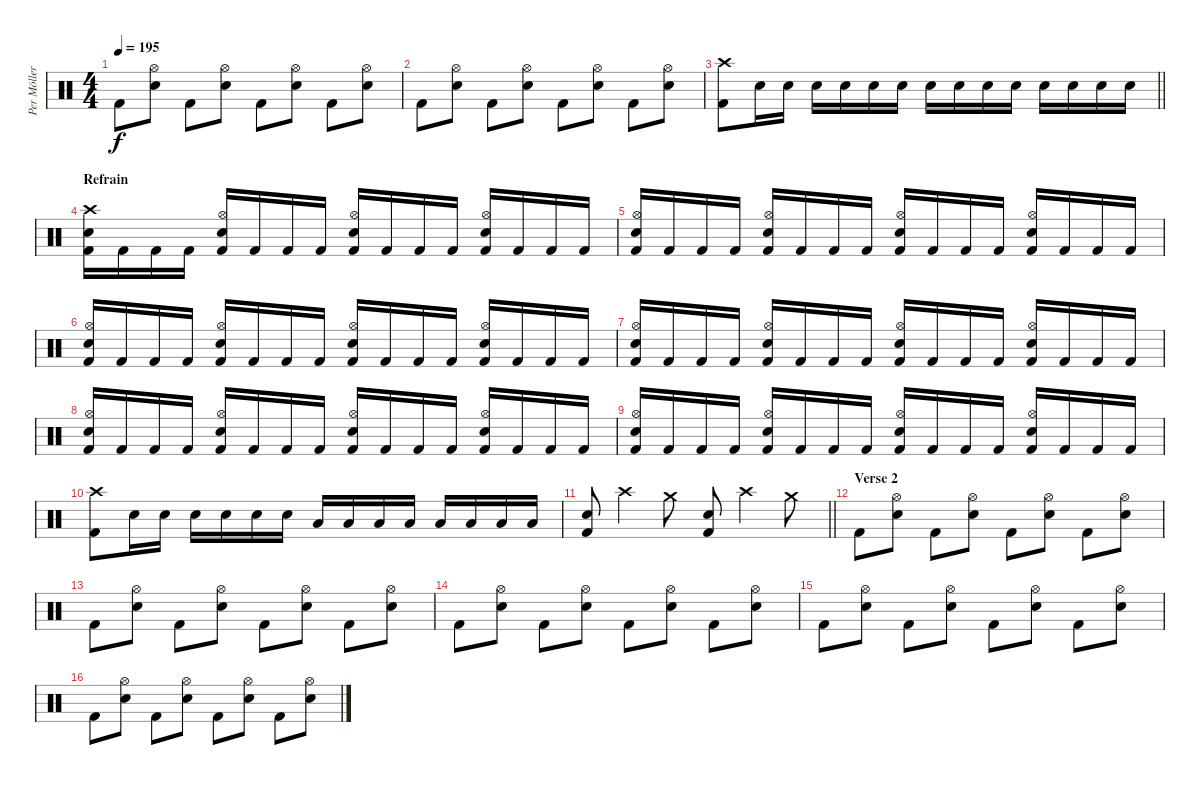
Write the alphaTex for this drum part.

\track ("Per Möller Jensen" "Per Möller") {instrument percussion}
\staff {score}
\articulation defaults
\ts (4 4)
\tempo 195
\clef neutral
\ks c "Kick (hit) 2".8{dy f}
("Hi-Hat (open)" "Snare (hit) 2").8 "Kick (hit) 2".8 ("Hi-Hat (open)" "Snare (hit) 2").8 "Kick (hit) 2".8 ("Hi-Hat (open)" "Snare (hit) 2").8 "Kick (hit) 2".8 ("Hi-Hat (open)" "Snare (hit) 2").8 |
"Kick (hit) 2".8 ("Hi-Hat (open)" "Snare (hit) 2").8 "Kick (hit) 2".8 ("Hi-Hat (open)" "Snare (hit) 2").8 "Kick (hit) 2".8 ("Hi-Hat (open)" "Snare (hit) 2").8 "Kick (hit) 2".8 ("Hi-Hat (open)" "Snare (hit) 2").8 |
\barLineRight lightlight
("Crash high (hit)" "Kick (hit) 2").8 "Snare (hit) 2".16 "Snare (hit) 2".16 "Snare (hit) 2".16 "Snare (hit) 2".16 "Snare (hit) 2".16 "Snare (hit) 2".16 "Snare (hit) 2".16 "Snare (hit) 2".16 "Snare (hit) 2".16 "Snare (hit) 2".16 "Snare (hit) 2".16 "Snare (hit) 2".16 "Snare (hit) 2".16 "Snare (hit) 2".16 |
\section ("" "Refrain")
("Crash high (hit)" "Snare (hit) 2" "Kick (hit) 2").16 "Kick (hit) 2".16 "Kick (hit) 2".16 "Kick (hit) 2".16 ("Hi-Hat (open)" "Snare (hit) 2" "Kick (hit) 2").16 "Kick (hit) 2".16 "Kick (hit) 2".16 "Kick (hit) 2".16 ("Hi-Hat (open)" "Snare (hit) 2" "Kick (hit) 2").16 "Kick (hit) 2".16 "Kick (hit) 2".16 "Kick (hit) 2".16 ("Hi-Hat (open)" "Snare (hit) 2" "Kick (hit) 2").16 "Kick (hit) 2".16 "Kick (hit) 2".16 "Kick (hit) 2".16 |
("Hi-Hat (open)" "Snare (hit) 2" "Kick (hit) 2").16 "Kick (hit) 2".16 "Kick (hit) 2".16 "Kick (hit) 2".16 ("Hi-Hat (open)" "Snare (hit) 2" "Kick (hit) 2").16 "Kick (hit) 2".16 "Kick (hit) 2".16 "Kick (hit) 2".16 ("Hi-Hat (open)" "Snare (hit) 2" "Kick (hit) 2").16 "Kick (hit) 2".16 "Kick (hit) 2".16 "Kick (hit) 2".16 ("Hi-Hat (open)" "Snare (hit) 2" "Kick (hit) 2").16 "Kick (hit) 2".16 "Kick (hit) 2".16 "Kick (hit) 2".16 |
("Hi-Hat (open)" "Snare (hit) 2" "Kick (hit) 2").16 "Kick (hit) 2".16 "Kick (hit) 2".16 "Kick (hit) 2".16 ("Hi-Hat (open)" "Snare (hit) 2" "Kick (hit) 2").16 "Kick (hit) 2".16 "Kick (hit) 2".16 "Kick (hit) 2".16 ("Hi-Hat (open)" "Snare (hit) 2" "Kick (hit) 2").16 "Kick (hit) 2".16 "Kick (hit) 2".16 "Kick (hit) 2".16 ("Hi-Hat (open)" "Snare (hit) 2" "Kick (hit) 2").16 "Kick (hit) 2".16 "Kick (hit) 2".16 "Kick (hit) 2".16 |
("Hi-Hat (open)" "Snare (hit) 2" "Kick (hit) 2").16 "Kick (hit) 2".16 "Kick (hit) 2".16 "Kick (hit) 2".16 ("Hi-Hat (open)" "Snare (hit) 2" "Kick (hit) 2").16 "Kick (hit) 2".16 "Kick (hit) 2".16 "Kick (hit) 2".16 ("Hi-Hat (open)" "Snare (hit) 2" "Kick (hit) 2").16 "Kick (hit) 2".16 "Kick (hit) 2".16 "Kick (hit) 2".16 ("Hi-Hat (open)" "Snare (hit) 2" "Kick (hit) 2").16 "Kick (hit) 2".16 "Kick (hit) 2".16 "Kick (hit) 2".16 |
("Hi-Hat (open)" "Snare (hit) 2" "Kick (hit) 2").16 "Kick (hit) 2".16 "Kick (hit) 2".16 "Kick (hit) 2".16 ("Hi-Hat (open)" "Snare (hit) 2" "Kick (hit) 2").16 "Kick (hit) 2".16 "Kick (hit) 2".16 "Kick (hit) 2".16 ("Hi-Hat (open)" "Snare (hit) 2" "Kick (hit) 2").16 "Kick (hit) 2".16 "Kick (hit) 2".16 "Kick (hit) 2".16 ("Hi-Hat (open)" "Snare (hit) 2" "Kick (hit) 2").16 "Kick (hit) 2".16 "Kick (hit) 2".16 "Kick (hit) 2".16 |
("Hi-Hat (open)" "Snare (hit) 2" "Kick (hit) 2").16 "Kick (hit) 2".16 "Kick (hit) 2".16 "Kick (hit) 2".16 ("Hi-Hat (open)" "Snare (hit) 2" "Kick (hit) 2").16 "Kick (hit) 2".16 "Kick (hit) 2".16 "Kick (hit) 2".16 ("Hi-Hat (open)" "Snare (hit) 2" "Kick (hit) 2").16 "Kick (hit) 2".16 "Kick (hit) 2".16 "Kick (hit) 2".16 ("Hi-Hat (open)" "Snare (hit) 2" "Kick (hit) 2").16 "Kick (hit) 2".16 "Kick (hit) 2".16 "Kick (hit) 2".16 |
("Crash high (hit)" "Kick (hit) 2").8 "Snare (hit) 2".16 "Snare (hit) 2".16 "Snare (hit) 2".16 "Snare (hit) 2".16 "Snare (hit) 2".16 "Snare (hit) 2".16 "Low Tom (hit)".16 "Low Tom (hit)".16 "Low Tom (hit)".16 "Low Tom (hit)".16 "Low Floor Tom (hit)".16 "Low Floor Tom (hit)".16 "Low Floor Tom (hit)".16 "Low Floor Tom (hit)".16 |
\barLineRight lightlight
("Snare (hit) 2" "Kick (hit) 2").8 "Crash high (hit)".4 "Crash medium (hit)".8 ("Snare (hit) 2" "Kick (hit) 2").8 "Crash high (hit)".4 "Crash medium (hit)".8 |
\section ("" "Verse 2")
"Kick (hit) 2".8 ("Hi-Hat (open)" "Snare (hit) 2").8 "Kick (hit) 2".8 ("Hi-Hat (open)" "Snare (hit) 2").8 "Kick (hit) 2".8 ("Hi-Hat (open)" "Snare (hit) 2").8 "Kick (hit) 2".8 ("Hi-Hat (open)" "Snare (hit) 2").8 |
"Kick (hit) 2".8 ("Hi-Hat (open)" "Snare (hit) 2").8 "Kick (hit) 2".8 ("Hi-Hat (open)" "Snare (hit) 2").8 "Kick (hit) 2".8 ("Hi-Hat (open)" "Snare (hit) 2").8 "Kick (hit) 2".8 ("Hi-Hat (open)" "Snare (hit) 2").8 |
"Kick (hit) 2".8 ("Hi-Hat (open)" "Snare (hit) 2").8 "Kick (hit) 2".8 ("Hi-Hat (open)" "Snare (hit) 2").8 "Kick (hit) 2".8 ("Hi-Hat (open)" "Snare (hit) 2").8 "Kick (hit) 2".8 ("Hi-Hat (open)" "Snare (hit) 2").8 |
"Kick (hit) 2".8 ("Hi-Hat (open)" "Snare (hit) 2").8 "Kick (hit) 2".8 ("Hi-Hat (open)" "Snare (hit) 2").8 "Kick (hit) 2".8 ("Hi-Hat (open)" "Snare (hit) 2").8 "Kick (hit) 2".8 ("Hi-Hat (open)" "Snare (hit) 2").8 |
"Kick (hit) 2".8 ("Hi-Hat (open)" "Snare (hit) 2").8 "Kick (hit) 2".8 ("Hi-Hat (open)" "Snare (hit) 2").8 "Kick (hit) 2".8 ("Hi-Hat (open)" "Snare (hit) 2").8 "Kick (hit) 2".8 ("Hi-Hat (open)" "Snare (hit) 2").8
